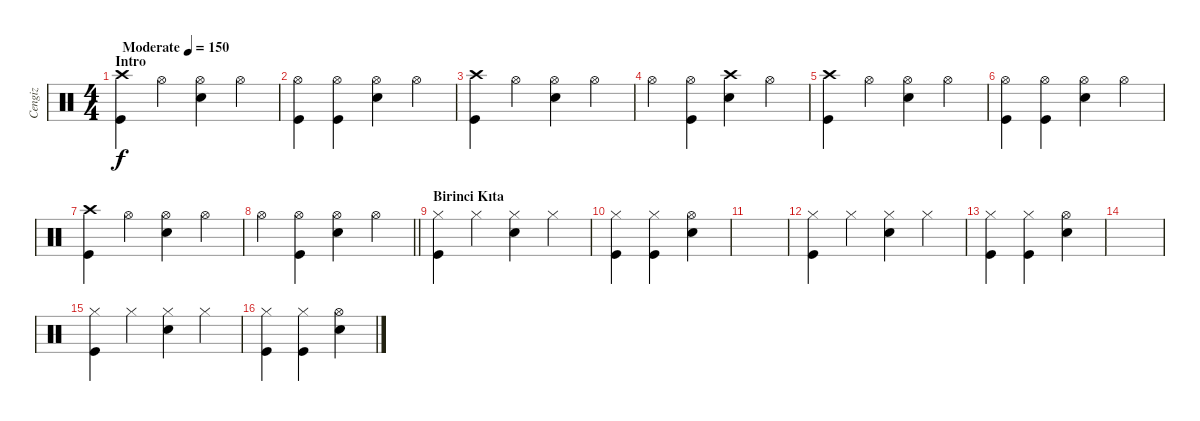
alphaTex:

\track ("Cengiz" "Cengiz") {instrument percussion}
\staff {score}
\articulation defaults
\ts (4 4)
\section ("" "Intro")
\tempo (150 "Moderate")
\clef neutral
\ks c
("Crash high (hit)" "Kick (hit)").4{dy f} "Hi-Hat (open)".4 ("Hi-Hat (open)" "Snare (hit) 2").4 "Hi-Hat (open)".4 |
("Hi-Hat (open)" "Kick (hit)").4 ("Hi-Hat (open)" "Kick (hit)").4 ("Hi-Hat (open)" "Snare (hit) 2").4 "Hi-Hat (open)".4 |
("Crash high (hit)" "Kick (hit)").4 "Hi-Hat (open)".4 ("Hi-Hat (open)" "Snare (hit) 2").4 "Hi-Hat (open)".4 |
"Hi-Hat (open)".4 ("Hi-Hat (open)" "Kick (hit)").4 ("Crash high (hit)" "Snare (hit) 2").4 "Hi-Hat (open)".4 |
("Crash high (hit)" "Kick (hit)").4 "Hi-Hat (open)".4 ("Hi-Hat (open)" "Snare (hit) 2").4 "Hi-Hat (open)".4 |
("Hi-Hat (open)" "Kick (hit)").4 ("Hi-Hat (open)" "Kick (hit)").4 ("Hi-Hat (open)" "Snare (hit) 2").4 "Hi-Hat (open)".4 |
("Crash high (hit)" "Kick (hit)").4 "Hi-Hat (open)".4 ("Hi-Hat (open)" "Snare (hit) 2").4 "Hi-Hat (open)".4 |
\barLineRight lightlight "Hi-Hat (open)".4
("Hi-Hat (open)" "Kick (hit)").4 ("Hi-Hat (open)" "Snare (hit) 2").4 "Hi-Hat (open)".4 |
\section ("" "Birinci Kıta")
("Hi-Hat (closed)" "Kick (hit)").4 "Hi-Hat (closed)".4 ("Hi-Hat (closed)" "Snare (hit) 2").4 "Hi-Hat (closed)".4 |
("Hi-Hat (closed)" "Kick (hit)").4 ("Hi-Hat (closed)" "Kick (hit)").4 ("Hi-Hat (open)" "Snare (hit) 2").4 |
|
("Hi-Hat (closed)" "Kick (hit)").4 "Hi-Hat (closed)".4 ("Hi-Hat (closed)" "Snare (hit) 2").4 "Hi-Hat (closed)".4 |
("Hi-Hat (closed)" "Kick (hit)").4 ("Hi-Hat (closed)" "Kick (hit)").4 ("Hi-Hat (open)" "Snare (hit) 2").4 |
|
("Hi-Hat (closed)" "Kick (hit)").4 "Hi-Hat (closed)".4 ("Hi-Hat (closed)" "Snare (hit) 2").4 "Hi-Hat (closed)".4 |
("Hi-Hat (closed)" "Kick (hit)").4 ("Hi-Hat (closed)" "Kick (hit)").4 ("Hi-Hat (open)" "Snare (hit) 2").4
